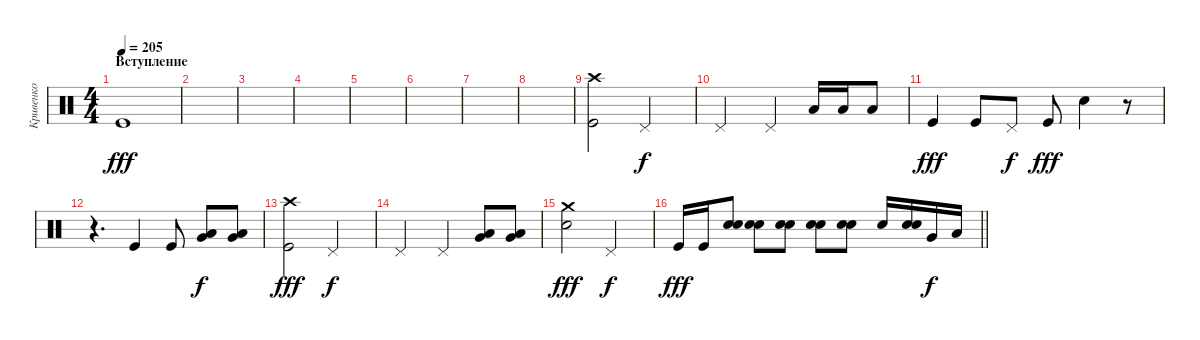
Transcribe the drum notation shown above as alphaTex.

\track ("Кривенко" "Кривенко") {instrument percussion}
\staff {score}
\articulation defaults
\ts (4 4)
\section ("" "Вступление")
\tempo 205
\clef neutral
\ks c "Kick (hit)".1{dy fff}
|
|
|
|
|
|
|
|
("Crash high (hit)" "Kick (hit)").2 "Pedal Hi-Hat (hit)".2{dy f} |
"Pedal Hi-Hat (hit)".2 "Pedal Hi-Hat (hit)".4 "Low Floor Tom (hit)".16 "Low Floor Tom (hit)".16 "Low Floor Tom (hit)".8 |
"Kick (hit)".4{dy fff} "Kick (hit)".8 "Pedal Hi-Hat (hit)".8{dy f} "Kick (hit)".8{dy fff} "Electric Snare (hit)".4 r.8 |
r.4{d} "Kick (hit)".4 "Kick (hit)".8 ("Very Low Tom (hit)" "Low Floor Tom (hit)").8{dy f} ("Very Low Tom (hit)" "Low Floor Tom (hit)").8 |
("Crash high (hit)" "Kick (hit)").2{dy fff} "Pedal Hi-Hat (hit)".2{dy f} |
"Pedal Hi-Hat (hit)".2 "Pedal Hi-Hat (hit)".4 ("Very Low Tom (hit)" "Low Floor Tom (hit)").8 ("Very Low Tom (hit)" "Low Floor Tom (hit)").8 |
("Crash medium (hit)" "Electric Snare (hit)").2{dy fff} "Pedal Hi-Hat (hit)".2{dy f} |
\barLineRight lightlight "Kick (hit)".16{dy fff} "Kick (hit)".16
("Electric Snare (hit)" "Electric Snare (hit)").8 ("Electric Snare (hit)" "Electric Snare (hit)").8 ("Electric Snare (hit)" "Electric Snare (hit)").8 ("Electric Snare (hit)" "Electric Snare (hit)").8 ("Electric Snare (hit)" "Electric Snare (hit)").8 "Electric Snare (hit)".16 ("Electric Snare (hit)" "Electric Snare (hit)").16 "Very Low Tom (hit)".16{dy f} "Low Floor Tom (hit)".16
